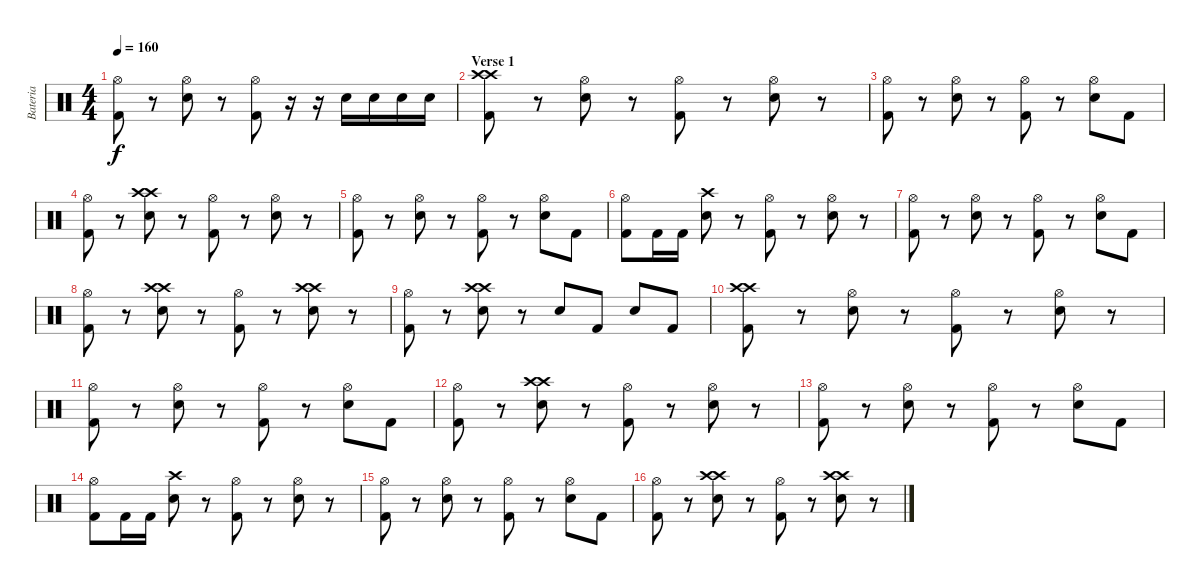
\track ("Bateria" "Bateria") {instrument percussion}
\staff {score}
\articulation defaults
\ts (4 4)
\tempo 160
\clef neutral
\ks c
("Hi-Hat (open)" "Kick (hit) 2").8{dy f} r.8 ("Hi-Hat (open)" "Snare (hit) 2").8 r.8 ("Hi-Hat (open)" "Kick (hit) 2").8 r.16 r.16 "Snare (hit) 2".16 "Snare (hit) 2".16 "Snare (hit) 2".16 "Snare (hit) 2".16 |
\section ("" "Verse 1")
("Crash high (hit)" "Crash high (hit)" "Kick (hit) 2").8 r.8 ("Hi-Hat (open)" "Snare (hit) 2").8 r.8 ("Hi-Hat (open)" "Kick (hit) 2").8 r.8 ("Hi-Hat (open)" "Snare (hit) 2").8 r.8 |
("Hi-Hat (open)" "Kick (hit) 2").8 r.8 ("Hi-Hat (open)" "Snare (hit) 2").8 r.8 ("Hi-Hat (open)" "Kick (hit) 2").8 r.8 ("Hi-Hat (open)" "Snare (hit) 2").8 "Kick (hit) 2".8 |
("Hi-Hat (open)" "Kick (hit) 2").8 r.8 ("Crash high (hit)" "Crash high (hit)" "Snare (hit) 2").8 r.8 ("Hi-Hat (open)" "Kick (hit) 2").8 r.8 ("Hi-Hat (open)" "Snare (hit) 2").8 r.8 |
("Hi-Hat (open)" "Kick (hit) 2").8 r.8 ("Hi-Hat (open)" "Snare (hit) 2").8 r.8 ("Hi-Hat (open)" "Kick (hit) 2").8 r.8 ("Hi-Hat (open)" "Snare (hit) 2").8 "Kick (hit) 2".8 |
("Hi-Hat (open)" "Kick (hit) 2").8 "Kick (hit) 2".16 "Kick (hit) 2".16 ("Crash high (hit)" "Snare (hit) 2").8 r.8 ("Hi-Hat (open)" "Kick (hit) 2").8 r.8 ("Hi-Hat (open)" "Snare (hit) 2").8 r.8 |
("Hi-Hat (open)" "Kick (hit) 2").8 r.8 ("Hi-Hat (open)" "Snare (hit) 2").8 r.8 ("Hi-Hat (open)" "Kick (hit) 2").8 r.8 ("Hi-Hat (open)" "Snare (hit) 2").8 "Kick (hit) 2".8 |
("Hi-Hat (open)" "Kick (hit) 2").8 r.8 ("Crash high (hit)" "Crash high (hit)" "Snare (hit) 2").8 r.8 ("Hi-Hat (open)" "Kick (hit) 2").8 r.8 ("Crash high (hit)" "Crash high (hit)" "Snare (hit) 2").8 r.8 |
("Hi-Hat (open)" "Kick (hit) 2").8 r.8 ("Crash high (hit)" "Crash high (hit)" "Snare (hit) 2").8 r.8 "Snare (hit) 2".8 "Kick (hit) 2".8 "Snare (hit) 2".8 "Kick (hit) 2".8 |
("Crash high (hit)" "Crash high (hit)" "Kick (hit) 2").8 r.8 ("Hi-Hat (open)" "Snare (hit) 2").8 r.8 ("Hi-Hat (open)" "Kick (hit) 2").8 r.8 ("Hi-Hat (open)" "Snare (hit) 2").8 r.8 |
("Hi-Hat (open)" "Kick (hit) 2").8 r.8 ("Hi-Hat (open)" "Snare (hit) 2").8 r.8 ("Hi-Hat (open)" "Kick (hit) 2").8 r.8 ("Hi-Hat (open)" "Snare (hit) 2").8 "Kick (hit) 2".8 |
("Hi-Hat (open)" "Kick (hit) 2").8 r.8 ("Crash high (hit)" "Crash high (hit)" "Snare (hit) 2").8 r.8 ("Hi-Hat (open)" "Kick (hit) 2").8 r.8 ("Hi-Hat (open)" "Snare (hit) 2").8 r.8 |
("Hi-Hat (open)" "Kick (hit) 2").8 r.8 ("Hi-Hat (open)" "Snare (hit) 2").8 r.8 ("Hi-Hat (open)" "Kick (hit) 2").8 r.8 ("Hi-Hat (open)" "Snare (hit) 2").8 "Kick (hit) 2".8 |
("Hi-Hat (open)" "Kick (hit) 2").8 "Kick (hit) 2".16 "Kick (hit) 2".16 ("Crash high (hit)" "Snare (hit) 2").8 r.8 ("Hi-Hat (open)" "Kick (hit) 2").8 r.8 ("Hi-Hat (open)" "Snare (hit) 2").8 r.8 |
("Hi-Hat (open)" "Kick (hit) 2").8 r.8 ("Hi-Hat (open)" "Snare (hit) 2").8 r.8 ("Hi-Hat (open)" "Kick (hit) 2").8 r.8 ("Hi-Hat (open)" "Snare (hit) 2").8 "Kick (hit) 2".8 |
("Hi-Hat (open)" "Kick (hit) 2").8 r.8 ("Crash high (hit)" "Crash high (hit)" "Snare (hit) 2").8 r.8 ("Hi-Hat (open)" "Kick (hit) 2").8 r.8 ("Crash high (hit)" "Crash high (hit)" "Snare (hit) 2").8 r.8
